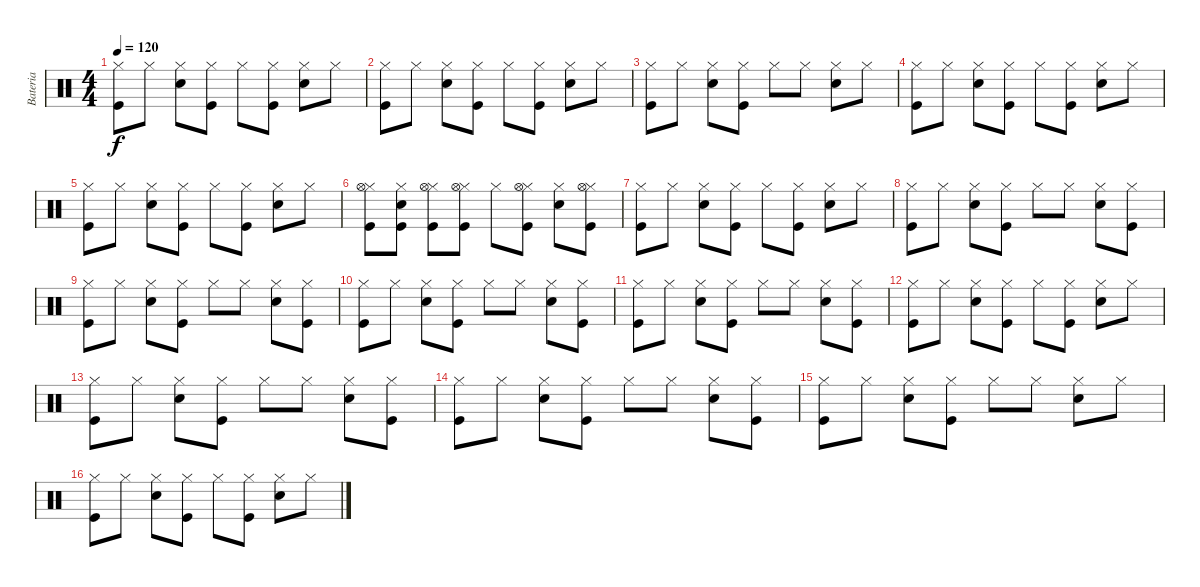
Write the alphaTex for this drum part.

\track ("Bateria" "Bateria") {instrument percussion}
\staff {score}
\articulation defaults
\ts (4 4)
\tempo 120
\clef neutral
\ks c
("Hi-Hat (closed)" "Kick (hit)").8{dy f} "Hi-Hat (closed)".8 ("Hi-Hat (closed)" "Electric Snare (hit)").8 ("Hi-Hat (closed)" "Kick (hit)").8 "Hi-Hat (closed)".8 ("Hi-Hat (closed)" "Kick (hit)").8 ("Hi-Hat (closed)" "Electric Snare (hit)").8 "Hi-Hat (closed)".8 |
("Hi-Hat (closed)" "Kick (hit)").8 "Hi-Hat (closed)".8 ("Hi-Hat (closed)" "Electric Snare (hit)").8 ("Hi-Hat (closed)" "Kick (hit)").8 "Hi-Hat (closed)".8 ("Hi-Hat (closed)" "Kick (hit)").8 ("Hi-Hat (closed)" "Electric Snare (hit)").8 "Hi-Hat (closed)".8 |
("Hi-Hat (closed)" "Kick (hit)").8 "Hi-Hat (closed)".8 ("Hi-Hat (closed)" "Electric Snare (hit)").8 ("Hi-Hat (closed)" "Kick (hit)").8 "Hi-Hat (closed)".8 "Hi-Hat (closed)".8 ("Hi-Hat (closed)" "Electric Snare (hit)").8 "Hi-Hat (closed)".8 |
("Hi-Hat (closed)" "Kick (hit)").8 "Hi-Hat (closed)".8 ("Hi-Hat (closed)" "Electric Snare (hit)").8 ("Hi-Hat (closed)" "Kick (hit)").8 "Hi-Hat (closed)".8 ("Hi-Hat (closed)" "Kick (hit)").8 ("Hi-Hat (closed)" "Electric Snare (hit)").8 "Hi-Hat (closed)".8 |
("Hi-Hat (closed)" "Kick (hit)").8 "Hi-Hat (closed)".8 ("Hi-Hat (closed)" "Electric Snare (hit)").8 ("Hi-Hat (closed)" "Kick (hit)").8 "Hi-Hat (closed)".8 ("Hi-Hat (closed)" "Kick (hit)").8 ("Hi-Hat (closed)" "Electric Snare (hit)").8 "Hi-Hat (closed)".8 |
("Hi-Hat (closed)" "Hi-Hat (open)" "Kick (hit)").8 ("Hi-Hat (closed)" "Electric Snare (hit)" "Kick (hit)").8 ("Hi-Hat (closed)" "Hi-Hat (open)" "Kick (hit)").8 ("Hi-Hat (closed)" "Hi-Hat (open)" "Kick (hit)").8 "Hi-Hat (closed)".8 ("Hi-Hat (closed)" "Hi-Hat (open)" "Kick (hit)").8 ("Hi-Hat (closed)" "Electric Snare (hit)").8 ("Hi-Hat (closed)" "Hi-Hat (open)" "Kick (hit)").8 |
("Hi-Hat (closed)" "Kick (hit)").8 "Hi-Hat (closed)".8 ("Hi-Hat (closed)" "Electric Snare (hit)").8 ("Hi-Hat (closed)" "Kick (hit)").8 "Hi-Hat (closed)".8 ("Hi-Hat (closed)" "Kick (hit)").8 ("Hi-Hat (closed)" "Electric Snare (hit)").8 "Hi-Hat (closed)".8 |
("Hi-Hat (closed)" "Kick (hit)").8 "Hi-Hat (closed)".8 ("Hi-Hat (closed)" "Electric Snare (hit)").8 ("Hi-Hat (closed)" "Kick (hit)").8 "Hi-Hat (closed)".8 "Hi-Hat (closed)".8 ("Hi-Hat (closed)" "Electric Snare (hit)").8 ("Hi-Hat (closed)" "Kick (hit)").8 |
("Hi-Hat (closed)" "Kick (hit)").8 "Hi-Hat (closed)".8 ("Hi-Hat (closed)" "Electric Snare (hit)").8 ("Hi-Hat (closed)" "Kick (hit)").8 "Hi-Hat (closed)".8 "Hi-Hat (closed)".8 ("Hi-Hat (closed)" "Electric Snare (hit)").8 ("Hi-Hat (closed)" "Kick (hit)").8 |
("Hi-Hat (closed)" "Kick (hit)").8 "Hi-Hat (closed)".8 ("Hi-Hat (closed)" "Electric Snare (hit)").8 ("Hi-Hat (closed)" "Kick (hit)").8 "Hi-Hat (closed)".8 "Hi-Hat (closed)".8 ("Hi-Hat (closed)" "Electric Snare (hit)").8 ("Hi-Hat (closed)" "Kick (hit)").8 |
("Hi-Hat (closed)" "Kick (hit)").8 "Hi-Hat (closed)".8 ("Hi-Hat (closed)" "Electric Snare (hit)").8 ("Hi-Hat (closed)" "Kick (hit)").8 "Hi-Hat (closed)".8 "Hi-Hat (closed)".8 ("Hi-Hat (closed)" "Electric Snare (hit)").8 ("Hi-Hat (closed)" "Kick (hit)").8 |
("Hi-Hat (closed)" "Kick (hit)").8 "Hi-Hat (closed)".8 ("Hi-Hat (closed)" "Electric Snare (hit)").8 ("Hi-Hat (closed)" "Kick (hit)").8 "Hi-Hat (closed)".8 ("Hi-Hat (closed)" "Kick (hit)").8 ("Hi-Hat (closed)" "Electric Snare (hit)").8 "Hi-Hat (closed)".8 |
("Hi-Hat (closed)" "Kick (hit)").8 "Hi-Hat (closed)".8 ("Hi-Hat (closed)" "Electric Snare (hit)").8 ("Hi-Hat (closed)" "Kick (hit)").8 "Hi-Hat (closed)".8 "Hi-Hat (closed)".8 ("Hi-Hat (closed)" "Electric Snare (hit)").8 ("Hi-Hat (closed)" "Kick (hit)").8 |
("Hi-Hat (closed)" "Kick (hit)").8 "Hi-Hat (closed)".8 ("Hi-Hat (closed)" "Electric Snare (hit)").8 ("Hi-Hat (closed)" "Kick (hit)").8 "Hi-Hat (closed)".8 "Hi-Hat (closed)".8 ("Hi-Hat (closed)" "Electric Snare (hit)").8 ("Hi-Hat (closed)" "Kick (hit)").8 |
("Hi-Hat (closed)" "Kick (hit)").8 "Hi-Hat (closed)".8 ("Hi-Hat (closed)" "Electric Snare (hit)").8 ("Hi-Hat (closed)" "Kick (hit)").8 "Hi-Hat (closed)".8 "Hi-Hat (closed)".8 ("Hi-Hat (closed)" "Electric Snare (hit)").8 "Hi-Hat (closed)".8 |
("Hi-Hat (closed)" "Kick (hit)").8 "Hi-Hat (closed)".8 ("Hi-Hat (closed)" "Electric Snare (hit)").8 ("Hi-Hat (closed)" "Kick (hit)").8 "Hi-Hat (closed)".8 ("Hi-Hat (closed)" "Kick (hit)").8 ("Hi-Hat (closed)" "Electric Snare (hit)").8 "Hi-Hat (closed)".8
